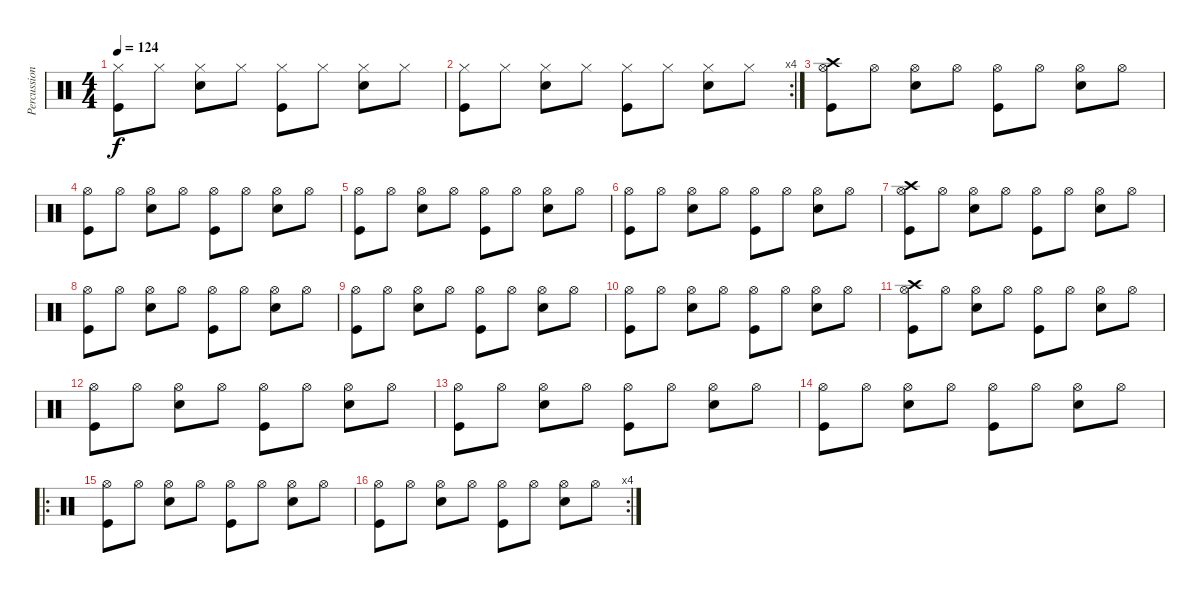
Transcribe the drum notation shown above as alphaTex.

\track ("Percussions" "Percussion") {instrument percussion}
\staff {score}
\articulation defaults
\ts (4 4)
\tempo 124
\clef neutral
\ks c
("Hi-Hat (closed)" "Kick (hit)").8{dy f} "Hi-Hat (closed)".8 ("Hi-Hat (closed)" "Electric Snare (hit)").8 "Hi-Hat (closed)".8 ("Hi-Hat (closed)" "Kick (hit)").8 "Hi-Hat (closed)".8 ("Hi-Hat (closed)" "Electric Snare (hit)").8 "Hi-Hat (closed)".8 |
\rc 4
("Hi-Hat (closed)" "Kick (hit)").8 "Hi-Hat (closed)".8 ("Hi-Hat (closed)" "Electric Snare (hit)").8 "Hi-Hat (closed)".8 ("Hi-Hat (closed)" "Kick (hit)").8 "Hi-Hat (closed)".8 ("Hi-Hat (closed)" "Electric Snare (hit)").8 "Hi-Hat (closed)".8 |
("Hi-Hat (open)" "Kick (hit)" "Crash high (hit)").8 "Hi-Hat (open)".8 ("Hi-Hat (open)" "Electric Snare (hit)").8 "Hi-Hat (open)".8 ("Hi-Hat (open)" "Kick (hit)").8 "Hi-Hat (open)".8 ("Hi-Hat (open)" "Electric Snare (hit)").8 "Hi-Hat (open)".8 |
("Hi-Hat (open)" "Kick (hit)").8 "Hi-Hat (open)".8 ("Hi-Hat (open)" "Electric Snare (hit)").8 "Hi-Hat (open)".8 ("Hi-Hat (open)" "Kick (hit)").8 "Hi-Hat (open)".8 ("Hi-Hat (open)" "Electric Snare (hit)").8 "Hi-Hat (open)".8 |
("Hi-Hat (open)" "Kick (hit)").8 "Hi-Hat (open)".8 ("Hi-Hat (open)" "Electric Snare (hit)").8 "Hi-Hat (open)".8 ("Hi-Hat (open)" "Kick (hit)").8 "Hi-Hat (open)".8 ("Hi-Hat (open)" "Electric Snare (hit)").8 "Hi-Hat (open)".8 |
("Hi-Hat (open)" "Kick (hit)").8 "Hi-Hat (open)".8 ("Hi-Hat (open)" "Electric Snare (hit)").8 "Hi-Hat (open)".8 ("Hi-Hat (open)" "Kick (hit)").8 "Hi-Hat (open)".8 ("Hi-Hat (open)" "Electric Snare (hit)").8 "Hi-Hat (open)".8 |
("Hi-Hat (open)" "Kick (hit)" "Crash high (hit)").8 "Hi-Hat (open)".8 ("Hi-Hat (open)" "Electric Snare (hit)").8 "Hi-Hat (open)".8 ("Hi-Hat (open)" "Kick (hit)").8 "Hi-Hat (open)".8 ("Hi-Hat (open)" "Electric Snare (hit)").8 "Hi-Hat (open)".8 |
("Hi-Hat (open)" "Kick (hit)").8 "Hi-Hat (open)".8 ("Hi-Hat (open)" "Electric Snare (hit)").8 "Hi-Hat (open)".8 ("Hi-Hat (open)" "Kick (hit)").8 "Hi-Hat (open)".8 ("Hi-Hat (open)" "Electric Snare (hit)").8 "Hi-Hat (open)".8 |
("Hi-Hat (open)" "Kick (hit)").8 "Hi-Hat (open)".8 ("Hi-Hat (open)" "Electric Snare (hit)").8 "Hi-Hat (open)".8 ("Hi-Hat (open)" "Kick (hit)").8 "Hi-Hat (open)".8 ("Hi-Hat (open)" "Electric Snare (hit)").8 "Hi-Hat (open)".8 |
("Hi-Hat (open)" "Kick (hit)").8 "Hi-Hat (open)".8 ("Hi-Hat (open)" "Electric Snare (hit)").8 "Hi-Hat (open)".8 ("Hi-Hat (open)" "Kick (hit)").8 "Hi-Hat (open)".8 ("Hi-Hat (open)" "Electric Snare (hit)").8 "Hi-Hat (open)".8 |
("Hi-Hat (open)" "Kick (hit)" "Crash high (hit)").8 "Hi-Hat (open)".8 ("Hi-Hat (open)" "Electric Snare (hit)").8 "Hi-Hat (open)".8 ("Hi-Hat (open)" "Kick (hit)").8 "Hi-Hat (open)".8 ("Hi-Hat (open)" "Electric Snare (hit)").8 "Hi-Hat (open)".8 |
("Hi-Hat (open)" "Kick (hit)").8 "Hi-Hat (open)".8 ("Hi-Hat (open)" "Electric Snare (hit)").8 "Hi-Hat (open)".8 ("Hi-Hat (open)" "Kick (hit)").8 "Hi-Hat (open)".8 ("Hi-Hat (open)" "Electric Snare (hit)").8 "Hi-Hat (open)".8 |
("Hi-Hat (open)" "Kick (hit)").8 "Hi-Hat (open)".8 ("Hi-Hat (open)" "Electric Snare (hit)").8 "Hi-Hat (open)".8 ("Hi-Hat (open)" "Kick (hit)").8 "Hi-Hat (open)".8 ("Hi-Hat (open)" "Electric Snare (hit)").8 "Hi-Hat (open)".8 |
("Hi-Hat (open)" "Kick (hit)").8 "Hi-Hat (open)".8 ("Hi-Hat (open)" "Electric Snare (hit)").8 "Hi-Hat (open)".8 ("Hi-Hat (open)" "Kick (hit)").8 "Hi-Hat (open)".8 ("Hi-Hat (open)" "Electric Snare (hit)").8 "Hi-Hat (open)".8 |
\ro
("Hi-Hat (open)" "Kick (hit)").8 "Hi-Hat (open)".8 ("Hi-Hat (open)" "Electric Snare (hit)").8 "Hi-Hat (open)".8 ("Hi-Hat (open)" "Kick (hit)").8 "Hi-Hat (open)".8 ("Hi-Hat (open)" "Electric Snare (hit)").8 "Hi-Hat (open)".8 |
\rc 4
("Hi-Hat (open)" "Kick (hit)").8 "Hi-Hat (open)".8 ("Hi-Hat (open)" "Electric Snare (hit)").8 "Hi-Hat (open)".8 ("Hi-Hat (open)" "Kick (hit)").8 "Hi-Hat (open)".8 ("Hi-Hat (open)" "Electric Snare (hit)").8 "Hi-Hat (open)".8
